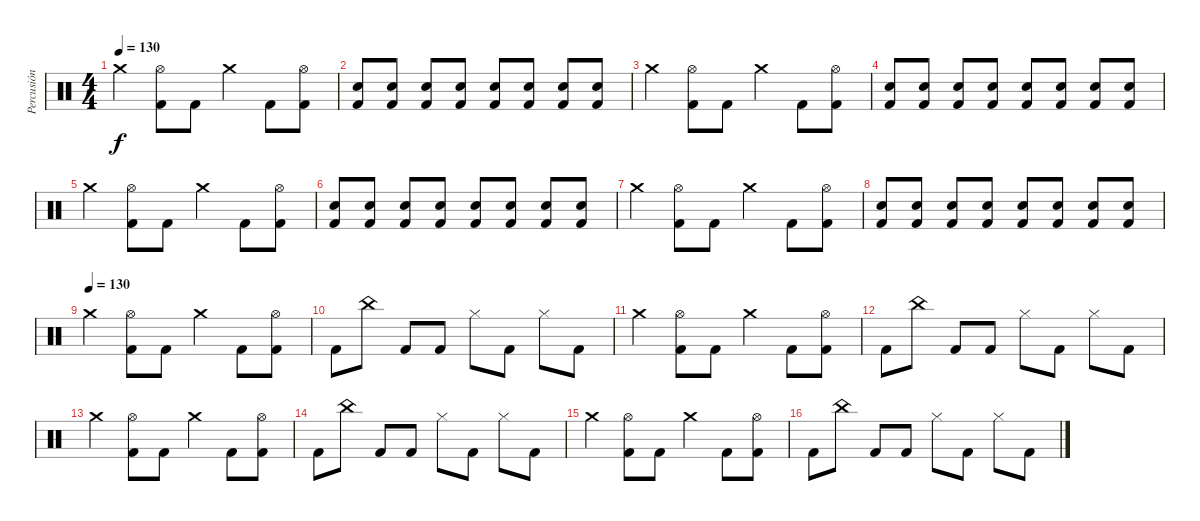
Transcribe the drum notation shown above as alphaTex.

\track ("Percusión" "Percusión") {instrument percussion}
\staff {score}
\articulation defaults
\ts (4 4)
\tempo 130
\clef neutral
\ks c "Crash medium (hit)".4{dy f}
("Hi-Hat (open)" "Kick (hit) 2").8 "Kick (hit) 2".8 "Crash medium (hit)".4 "Kick (hit) 2".8 ("Hi-Hat (open)" "Kick (hit) 2").8 |
("Snare (hit) 2" "Kick (hit) 2").8 ("Snare (hit) 2" "Kick (hit) 2").8 ("Snare (hit) 2" "Kick (hit) 2").8 ("Snare (hit) 2" "Kick (hit) 2").8 ("Snare (hit) 2" "Kick (hit) 2").8 ("Snare (hit) 2" "Kick (hit) 2").8 ("Snare (hit) 2" "Kick (hit) 2").8 ("Snare (hit) 2" "Kick (hit) 2").8 |
"Crash medium (hit)".4 ("Hi-Hat (open)" "Kick (hit) 2").8 "Kick (hit) 2".8 "Crash medium (hit)".4 "Kick (hit) 2".8 ("Hi-Hat (open)" "Kick (hit) 2").8 |
("Snare (hit) 2" "Kick (hit) 2").8 ("Snare (hit) 2" "Kick (hit) 2").8 ("Snare (hit) 2" "Kick (hit) 2").8 ("Snare (hit) 2" "Kick (hit) 2").8 ("Snare (hit) 2" "Kick (hit) 2").8 ("Snare (hit) 2" "Kick (hit) 2").8 ("Snare (hit) 2" "Kick (hit) 2").8 ("Snare (hit) 2" "Kick (hit) 2").8 |
"Crash medium (hit)".4 ("Hi-Hat (open)" "Kick (hit) 2").8 "Kick (hit) 2".8 "Crash medium (hit)".4 "Kick (hit) 2".8 ("Hi-Hat (open)" "Kick (hit) 2").8 |
("Snare (hit) 2" "Kick (hit) 2").8 ("Snare (hit) 2" "Kick (hit) 2").8 ("Snare (hit) 2" "Kick (hit) 2").8 ("Snare (hit) 2" "Kick (hit) 2").8 ("Snare (hit) 2" "Kick (hit) 2").8 ("Snare (hit) 2" "Kick (hit) 2").8 ("Snare (hit) 2" "Kick (hit) 2").8 ("Snare (hit) 2" "Kick (hit) 2").8 |
"Crash medium (hit)".4 ("Hi-Hat (open)" "Kick (hit) 2").8 "Kick (hit) 2".8 "Crash medium (hit)".4 "Kick (hit) 2".8 ("Hi-Hat (open)" "Kick (hit) 2").8 |
("Snare (hit) 2" "Kick (hit) 2").8 ("Snare (hit) 2" "Kick (hit) 2").8 ("Snare (hit) 2" "Kick (hit) 2").8 ("Snare (hit) 2" "Kick (hit) 2").8 ("Snare (hit) 2" "Kick (hit) 2").8 ("Snare (hit) 2" "Kick (hit) 2").8 ("Snare (hit) 2" "Kick (hit) 2").8 ("Snare (hit) 2" "Kick (hit) 2").8 |
\tempo (130)
"Crash medium (hit)".4 ("Hi-Hat (open)" "Kick (hit) 2").8 "Kick (hit) 2".8 "Crash medium (hit)".4 "Kick (hit) 2".8 ("Hi-Hat (open)" "Kick (hit) 2").8 |
"Kick (hit) 2".8 "China (hit)".8 "Kick (hit) 2".8 "Kick (hit) 2".8 "Hi-Hat (closed)".8 "Kick (hit) 2".8 "Hi-Hat (closed)".8 "Kick (hit) 2".8 |
"Crash medium (hit)".4 ("Hi-Hat (open)" "Kick (hit) 2").8 "Kick (hit) 2".8 "Crash medium (hit)".4 "Kick (hit) 2".8 ("Hi-Hat (open)" "Kick (hit) 2").8 |
"Kick (hit) 2".8 "China (hit)".8 "Kick (hit) 2".8 "Kick (hit) 2".8 "Hi-Hat (closed)".8 "Kick (hit) 2".8 "Hi-Hat (closed)".8 "Kick (hit) 2".8 |
"Crash medium (hit)".4 ("Hi-Hat (open)" "Kick (hit) 2").8 "Kick (hit) 2".8 "Crash medium (hit)".4 "Kick (hit) 2".8 ("Hi-Hat (open)" "Kick (hit) 2").8 |
"Kick (hit) 2".8 "China (hit)".8 "Kick (hit) 2".8 "Kick (hit) 2".8 "Hi-Hat (closed)".8 "Kick (hit) 2".8 "Hi-Hat (closed)".8 "Kick (hit) 2".8 |
"Crash medium (hit)".4 ("Hi-Hat (open)" "Kick (hit) 2").8 "Kick (hit) 2".8 "Crash medium (hit)".4 "Kick (hit) 2".8 ("Hi-Hat (open)" "Kick (hit) 2").8 |
"Kick (hit) 2".8 "China (hit)".8 "Kick (hit) 2".8 "Kick (hit) 2".8 "Hi-Hat (closed)".8 "Kick (hit) 2".8 "Hi-Hat (closed)".8 "Kick (hit) 2".8
